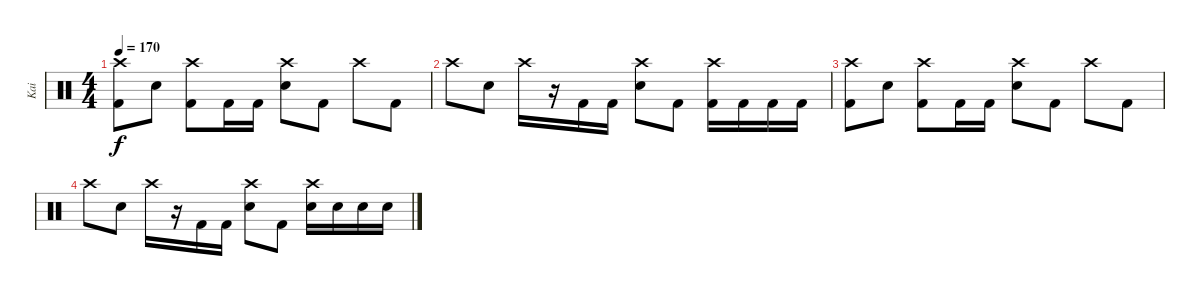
\track ("Kai" "Kai") {instrument percussion}
\staff {score}
\articulation defaults
\ts (4 4)
\tempo 170
\clef neutral
\ks c
("Crash high (hit)" "Kick (hit) 2").8{dy f} "Electric Snare (hit)".8 ("Crash high (hit)" "Kick (hit) 2").8 "Kick (hit) 2".16 "Kick (hit) 2".16 ("Crash high (hit)" "Electric Snare (hit)").8 "Kick (hit) 2".8 "Crash high (hit)".8 "Kick (hit) 2".8 |
"Crash high (hit)".8 "Electric Snare (hit)".8 "Crash high (hit)".16 r.16 "Kick (hit) 2".16 "Kick (hit) 2".16 ("Crash high (hit)" "Electric Snare (hit)").8 "Kick (hit) 2".8 ("Crash high (hit)" "Kick (hit) 2").16 "Kick (hit) 2".16 "Kick (hit) 2".16 "Kick (hit) 2".16 |
("Crash high (hit)" "Kick (hit) 2").8 "Electric Snare (hit)".8 ("Crash high (hit)" "Kick (hit) 2").8 "Kick (hit) 2".16 "Kick (hit) 2".16 ("Crash high (hit)" "Electric Snare (hit)").8 "Kick (hit) 2".8 "Crash high (hit)".8 "Kick (hit) 2".8 |
"Crash high (hit)".8 "Electric Snare (hit)".8 "Crash high (hit)".16 r.16 "Kick (hit) 2".16 "Kick (hit) 2".16 ("Crash high (hit)" "Electric Snare (hit)").8 "Kick (hit) 2".8 ("Crash high (hit)" "Electric Snare (hit)").16 "Electric Snare (hit)".16 "Electric Snare (hit)".16 "Electric Snare (hit)".16
